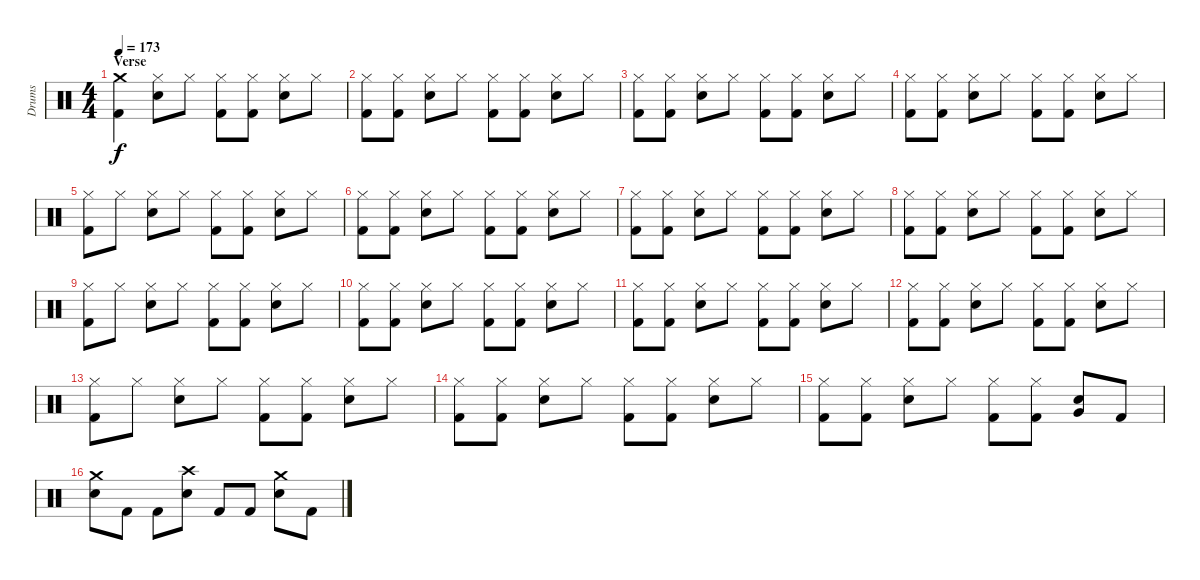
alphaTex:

\track ("Drums" "Drums") {instrument percussion}
\staff {score}
\articulation defaults
\ts (4 4)
\section ("" "Verse")
\tempo 173
\clef neutral
\ks c
("Crash medium (hit)" "Kick (hit) 2").4{dy f} ("Hi-Hat (closed)" "Electric Snare (hit)").8 "Hi-Hat (closed)".8 ("Hi-Hat (closed)" "Kick (hit) 2").8 ("Hi-Hat (closed)" "Kick (hit) 2").8 ("Hi-Hat (closed)" "Electric Snare (hit)").8 "Hi-Hat (closed)".8 |
("Hi-Hat (closed)" "Kick (hit) 2").8 ("Hi-Hat (closed)" "Kick (hit) 2").8 ("Hi-Hat (closed)" "Electric Snare (hit)").8 "Hi-Hat (closed)".8 ("Hi-Hat (closed)" "Kick (hit) 2").8 ("Hi-Hat (closed)" "Kick (hit) 2").8 ("Hi-Hat (closed)" "Electric Snare (hit)").8 "Hi-Hat (closed)".8 |
("Hi-Hat (closed)" "Kick (hit) 2").8 ("Hi-Hat (closed)" "Kick (hit) 2").8 ("Hi-Hat (closed)" "Electric Snare (hit)").8 "Hi-Hat (closed)".8 ("Hi-Hat (closed)" "Kick (hit) 2").8 ("Hi-Hat (closed)" "Kick (hit) 2").8 ("Hi-Hat (closed)" "Electric Snare (hit)").8 "Hi-Hat (closed)".8 |
("Hi-Hat (closed)" "Kick (hit) 2").8 ("Hi-Hat (closed)" "Kick (hit) 2").8 ("Hi-Hat (closed)" "Electric Snare (hit)").8 "Hi-Hat (closed)".8 ("Hi-Hat (closed)" "Kick (hit) 2").8 ("Hi-Hat (closed)" "Kick (hit) 2").8 ("Hi-Hat (closed)" "Electric Snare (hit)").8 "Hi-Hat (closed)".8 |
("Hi-Hat (closed)" "Kick (hit) 2").8 "Hi-Hat (closed)".8 ("Hi-Hat (closed)" "Electric Snare (hit)").8 "Hi-Hat (closed)".8 ("Hi-Hat (closed)" "Kick (hit) 2").8 ("Hi-Hat (closed)" "Kick (hit) 2").8 ("Hi-Hat (closed)" "Electric Snare (hit)").8 "Hi-Hat (closed)".8 |
("Hi-Hat (closed)" "Kick (hit) 2").8 ("Hi-Hat (closed)" "Kick (hit) 2").8 ("Hi-Hat (closed)" "Electric Snare (hit)").8 "Hi-Hat (closed)".8 ("Hi-Hat (closed)" "Kick (hit) 2").8 ("Hi-Hat (closed)" "Kick (hit) 2").8 ("Hi-Hat (closed)" "Electric Snare (hit)").8 "Hi-Hat (closed)".8 |
("Hi-Hat (closed)" "Kick (hit) 2").8 ("Hi-Hat (closed)" "Kick (hit) 2").8 ("Hi-Hat (closed)" "Electric Snare (hit)").8 "Hi-Hat (closed)".8 ("Hi-Hat (closed)" "Kick (hit) 2").8 ("Hi-Hat (closed)" "Kick (hit) 2").8 ("Hi-Hat (closed)" "Electric Snare (hit)").8 "Hi-Hat (closed)".8 |
("Hi-Hat (closed)" "Kick (hit) 2").8 ("Hi-Hat (closed)" "Kick (hit) 2").8 ("Hi-Hat (closed)" "Electric Snare (hit)").8 "Hi-Hat (closed)".8 ("Hi-Hat (closed)" "Kick (hit) 2").8 ("Hi-Hat (closed)" "Kick (hit) 2").8 ("Hi-Hat (closed)" "Electric Snare (hit)").8 "Hi-Hat (closed)".8 |
("Hi-Hat (closed)" "Kick (hit) 2").8 "Hi-Hat (closed)".8 ("Hi-Hat (closed)" "Electric Snare (hit)").8 "Hi-Hat (closed)".8 ("Hi-Hat (closed)" "Kick (hit) 2").8 ("Hi-Hat (closed)" "Kick (hit) 2").8 ("Hi-Hat (closed)" "Electric Snare (hit)").8 "Hi-Hat (closed)".8 |
("Hi-Hat (closed)" "Kick (hit) 2").8 ("Hi-Hat (closed)" "Kick (hit) 2").8 ("Hi-Hat (closed)" "Electric Snare (hit)").8 "Hi-Hat (closed)".8 ("Hi-Hat (closed)" "Kick (hit) 2").8 ("Hi-Hat (closed)" "Kick (hit) 2").8 ("Hi-Hat (closed)" "Electric Snare (hit)").8 "Hi-Hat (closed)".8 |
("Hi-Hat (closed)" "Kick (hit) 2").8 ("Hi-Hat (closed)" "Kick (hit) 2").8 ("Hi-Hat (closed)" "Electric Snare (hit)").8 "Hi-Hat (closed)".8 ("Hi-Hat (closed)" "Kick (hit) 2").8 ("Hi-Hat (closed)" "Kick (hit) 2").8 ("Hi-Hat (closed)" "Electric Snare (hit)").8 "Hi-Hat (closed)".8 |
("Hi-Hat (closed)" "Kick (hit) 2").8 ("Hi-Hat (closed)" "Kick (hit) 2").8 ("Hi-Hat (closed)" "Electric Snare (hit)").8 "Hi-Hat (closed)".8 ("Hi-Hat (closed)" "Kick (hit) 2").8 ("Hi-Hat (closed)" "Kick (hit) 2").8 ("Hi-Hat (closed)" "Electric Snare (hit)").8 "Hi-Hat (closed)".8 |
("Hi-Hat (closed)" "Kick (hit) 2").8 "Hi-Hat (closed)".8 ("Hi-Hat (closed)" "Electric Snare (hit)").8 "Hi-Hat (closed)".8 ("Hi-Hat (closed)" "Kick (hit) 2").8 ("Hi-Hat (closed)" "Kick (hit) 2").8 ("Hi-Hat (closed)" "Electric Snare (hit)").8 "Hi-Hat (closed)".8 |
("Hi-Hat (closed)" "Kick (hit) 2").8 ("Hi-Hat (closed)" "Kick (hit) 2").8 ("Hi-Hat (closed)" "Electric Snare (hit)").8 "Hi-Hat (closed)".8 ("Hi-Hat (closed)" "Kick (hit) 2").8 ("Hi-Hat (closed)" "Kick (hit) 2").8 ("Hi-Hat (closed)" "Electric Snare (hit)").8 "Hi-Hat (closed)".8 |
("Hi-Hat (closed)" "Kick (hit) 2").8 ("Hi-Hat (closed)" "Kick (hit) 2").8 ("Hi-Hat (closed)" "Electric Snare (hit)").8 "Hi-Hat (closed)".8 ("Hi-Hat (closed)" "Kick (hit) 2").8 ("Hi-Hat (closed)" "Kick (hit) 2").8 ("Very Low Tom (hit)" "Electric Snare (hit)").8 "Kick (hit) 2".8 |
("Crash medium (hit)" "Electric Snare (hit)").8 "Kick (hit) 2".8 "Kick (hit) 2".8 ("Crash high (hit)" "Electric Snare (hit)").8 "Kick (hit) 2".8 "Kick (hit) 2".8 ("Crash medium (hit)" "Electric Snare (hit)").8 "Kick (hit) 2".8
